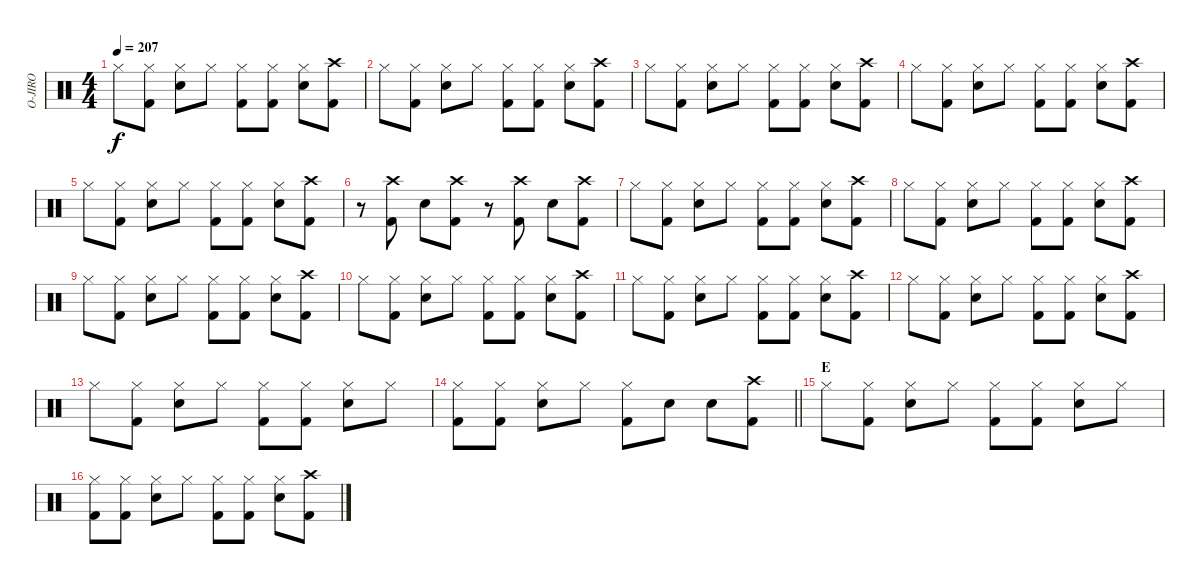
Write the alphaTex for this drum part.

\track ("O-JIRO" "O-JIRO") {instrument percussion}
\staff {score}
\articulation defaults
\ts (4 4)
\tempo 207
\clef neutral
\ks c "Hi-Hat (closed)".8{dy f}
("Hi-Hat (closed)" "Kick (hit) 2").8 ("Hi-Hat (closed)" "Snare (hit) 2").8 "Hi-Hat (closed)".8 ("Hi-Hat (closed)" "Kick (hit) 2").8 ("Hi-Hat (closed)" "Kick (hit) 2").8 ("Hi-Hat (closed)" "Snare (hit) 2").8 ("Crash high (hit)" "Kick (hit) 2").8 |
"Hi-Hat (closed)".8 ("Hi-Hat (closed)" "Kick (hit) 2").8 ("Hi-Hat (closed)" "Snare (hit) 2").8 "Hi-Hat (closed)".8 ("Hi-Hat (closed)" "Kick (hit) 2").8 ("Hi-Hat (closed)" "Kick (hit) 2").8 ("Hi-Hat (closed)" "Snare (hit) 2").8 ("Crash high (hit)" "Kick (hit) 2").8 |
"Hi-Hat (closed)".8 ("Hi-Hat (closed)" "Kick (hit) 2").8 ("Hi-Hat (closed)" "Snare (hit) 2").8 "Hi-Hat (closed)".8 ("Hi-Hat (closed)" "Kick (hit) 2").8 ("Hi-Hat (closed)" "Kick (hit) 2").8 ("Hi-Hat (closed)" "Snare (hit) 2").8 ("Crash high (hit)" "Kick (hit) 2").8 |
"Hi-Hat (closed)".8 ("Hi-Hat (closed)" "Kick (hit) 2").8 ("Hi-Hat (closed)" "Snare (hit) 2").8 "Hi-Hat (closed)".8 ("Hi-Hat (closed)" "Kick (hit) 2").8 ("Hi-Hat (closed)" "Kick (hit) 2").8 ("Hi-Hat (closed)" "Snare (hit) 2").8 ("Crash high (hit)" "Kick (hit) 2").8 |
"Hi-Hat (closed)".8 ("Hi-Hat (closed)" "Kick (hit) 2").8 ("Hi-Hat (closed)" "Snare (hit) 2").8 "Hi-Hat (closed)".8 ("Hi-Hat (closed)" "Kick (hit) 2").8 ("Hi-Hat (closed)" "Kick (hit) 2").8 ("Hi-Hat (closed)" "Snare (hit) 2").8 ("Crash high (hit)" "Kick (hit) 2").8 |
r.8 ("Crash high (hit)" "Kick (hit) 2").8 "Snare (hit) 2".8 ("Crash high (hit)" "Kick (hit) 2").8 r.8 ("Crash high (hit)" "Kick (hit) 2").8 "Snare (hit) 2".8 ("Crash high (hit)" "Kick (hit) 2").8 |
"Hi-Hat (closed)".8 ("Hi-Hat (closed)" "Kick (hit) 2").8 ("Hi-Hat (closed)" "Snare (hit) 2").8 "Hi-Hat (closed)".8 ("Hi-Hat (closed)" "Kick (hit) 2").8 ("Hi-Hat (closed)" "Kick (hit) 2").8 ("Hi-Hat (closed)" "Snare (hit) 2").8 ("Crash high (hit)" "Kick (hit) 2").8 |
"Hi-Hat (closed)".8 ("Hi-Hat (closed)" "Kick (hit) 2").8 ("Hi-Hat (closed)" "Snare (hit) 2").8 "Hi-Hat (closed)".8 ("Hi-Hat (closed)" "Kick (hit) 2").8 ("Hi-Hat (closed)" "Kick (hit) 2").8 ("Hi-Hat (closed)" "Snare (hit) 2").8 ("Crash high (hit)" "Kick (hit) 2").8 |
"Hi-Hat (closed)".8 ("Hi-Hat (closed)" "Kick (hit) 2").8 ("Hi-Hat (closed)" "Snare (hit) 2").8 "Hi-Hat (closed)".8 ("Hi-Hat (closed)" "Kick (hit) 2").8 ("Hi-Hat (closed)" "Kick (hit) 2").8 ("Hi-Hat (closed)" "Snare (hit) 2").8 ("Crash high (hit)" "Kick (hit) 2").8 |
"Hi-Hat (closed)".8 ("Hi-Hat (closed)" "Kick (hit) 2").8 ("Hi-Hat (closed)" "Snare (hit) 2").8 "Hi-Hat (closed)".8 ("Hi-Hat (closed)" "Kick (hit) 2").8 ("Hi-Hat (closed)" "Kick (hit) 2").8 ("Hi-Hat (closed)" "Snare (hit) 2").8 ("Crash high (hit)" "Kick (hit) 2").8 |
"Hi-Hat (closed)".8 ("Hi-Hat (closed)" "Kick (hit) 2").8 ("Hi-Hat (closed)" "Snare (hit) 2").8 "Hi-Hat (closed)".8 ("Hi-Hat (closed)" "Kick (hit) 2").8 ("Hi-Hat (closed)" "Kick (hit) 2").8 ("Hi-Hat (closed)" "Snare (hit) 2").8 ("Crash high (hit)" "Kick (hit) 2").8 |
"Hi-Hat (closed)".8 ("Hi-Hat (closed)" "Kick (hit) 2").8 ("Hi-Hat (closed)" "Snare (hit) 2").8 "Hi-Hat (closed)".8 ("Hi-Hat (closed)" "Kick (hit) 2").8 ("Hi-Hat (closed)" "Kick (hit) 2").8 ("Hi-Hat (closed)" "Snare (hit) 2").8 ("Crash high (hit)" "Kick (hit) 2").8 |
"Hi-Hat (closed)".8 ("Hi-Hat (closed)" "Kick (hit) 2").8 ("Hi-Hat (closed)" "Snare (hit) 2").8 "Hi-Hat (closed)".8 ("Hi-Hat (closed)" "Kick (hit) 2").8 ("Hi-Hat (closed)" "Kick (hit) 2").8 ("Hi-Hat (closed)" "Snare (hit) 2").8 "Hi-Hat (closed)".8 |
\barLineRight lightlight
("Hi-Hat (closed)" "Kick (hit) 2").8 ("Hi-Hat (closed)" "Kick (hit) 2").8 ("Hi-Hat (closed)" "Snare (hit) 2").8 "Hi-Hat (closed)".8 ("Hi-Hat (closed)" "Kick (hit) 2").8 "Snare (hit) 2".8 "Snare (hit) 2".8 ("Kick (hit) 2" "Crash high (hit)").8 |
\section ("" "E")
"Hi-Hat (closed)".8 ("Hi-Hat (closed)" "Kick (hit) 2").8 ("Hi-Hat (closed)" "Snare (hit) 2").8 "Hi-Hat (closed)".8 ("Hi-Hat (closed)" "Kick (hit) 2").8 ("Hi-Hat (closed)" "Kick (hit) 2").8 ("Hi-Hat (closed)" "Snare (hit) 2").8 "Hi-Hat (closed)".8 |
("Hi-Hat (closed)" "Kick (hit) 2").8 ("Hi-Hat (closed)" "Kick (hit) 2").8 ("Hi-Hat (closed)" "Snare (hit) 2").8 "Hi-Hat (closed)".8 ("Hi-Hat (closed)" "Kick (hit) 2").8 ("Hi-Hat (closed)" "Kick (hit) 2").8 ("Hi-Hat (closed)" "Snare (hit) 2").8 ("Crash high (hit)" "Kick (hit) 2").8
